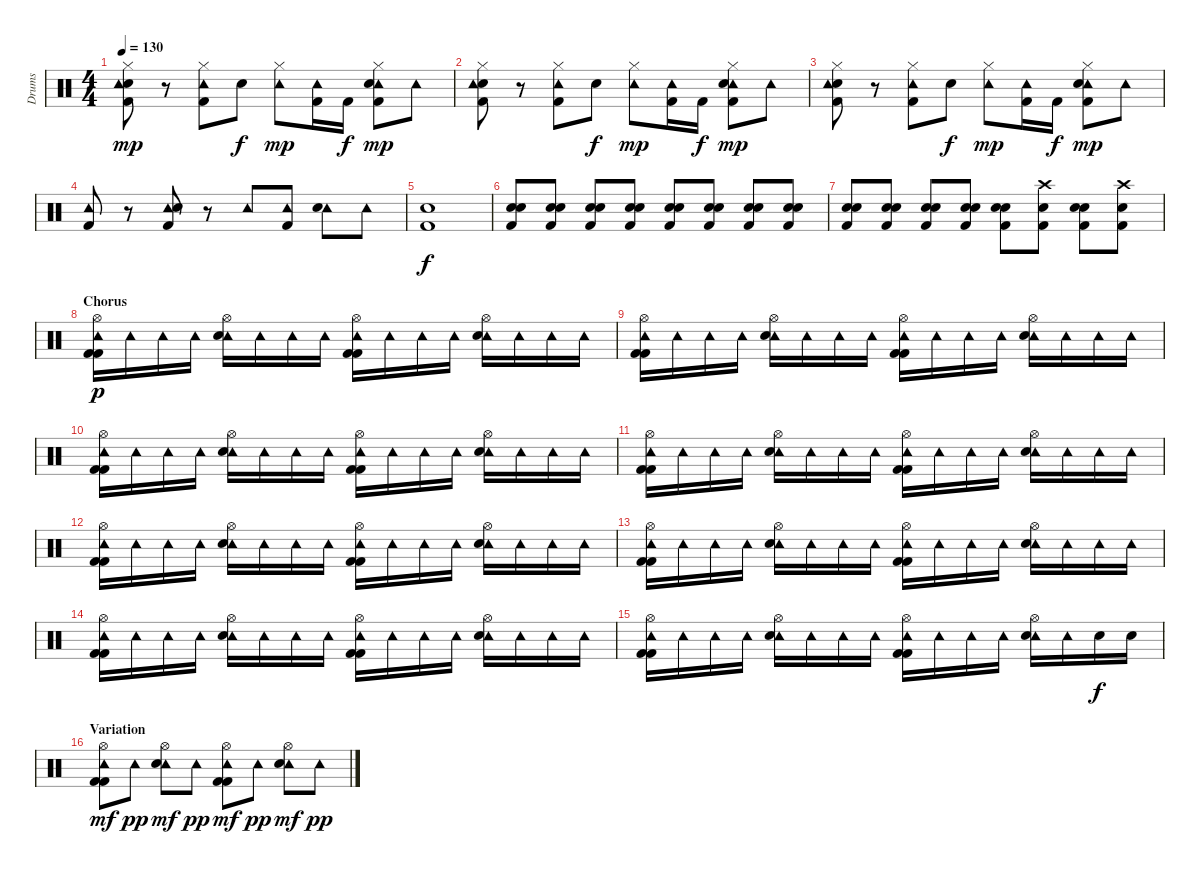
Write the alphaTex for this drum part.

\track ("Drums" "Drums") {instrument percussion}
\staff {score}
\articulation defaults
\ts (4 4)
\tempo 130
\clef neutral
\ks c
("Hi-Hat (closed)" "Snare (hit) 2" "Tambourine (hit)" "Kick (hit) 2").8{dy mp} r.8 ("Hi-Hat (closed)" "Tambourine (hit)" "Kick (hit) 2").8 "Snare (hit) 2".8{dy f} ("Hi-Hat (closed)" "Tambourine (hit)").8{dy mp} ("Tambourine (hit)" "Kick (hit) 2").16 "Kick (hit) 2".16{dy f} ("Hi-Hat (closed)" "Tambourine (hit)" "Snare (hit) 2" "Kick (hit) 2").8{dy mp} "Tambourine (hit)".8 |
("Hi-Hat (closed)" "Snare (hit) 2" "Tambourine (hit)" "Kick (hit) 2").8 r.8 ("Hi-Hat (closed)" "Tambourine (hit)" "Kick (hit) 2").8 "Snare (hit) 2".8{dy f} ("Hi-Hat (closed)" "Tambourine (hit)").8{dy mp} ("Tambourine (hit)" "Kick (hit) 2").16 "Kick (hit) 2".16{dy f} ("Hi-Hat (closed)" "Tambourine (hit)" "Snare (hit) 2" "Kick (hit) 2").8{dy mp} "Tambourine (hit)".8 |
("Hi-Hat (closed)" "Snare (hit) 2" "Tambourine (hit)" "Kick (hit) 2").8 r.8 ("Hi-Hat (closed)" "Tambourine (hit)" "Kick (hit) 2").8 "Snare (hit) 2".8{dy f} ("Hi-Hat (closed)" "Tambourine (hit)").8{dy mp} ("Tambourine (hit)" "Kick (hit) 2").16 "Kick (hit) 2".16{dy f} ("Hi-Hat (closed)" "Tambourine (hit)" "Snare (hit) 2" "Kick (hit) 2").8{dy mp} "Tambourine (hit)".8 |
("Tambourine (hit)" "Kick (hit) 2").8 r.8 ("Tambourine (hit)" "Snare (hit) 2" "Kick (hit) 2").8 r.8 "Tambourine (hit)".8 ("Tambourine (hit)" "Kick (hit) 2").8 ("Tambourine (hit)" "Snare (hit) 2").8 "Tambourine (hit)".8 |
("Snare (hit) 2" "Kick (hit) 2").1{dy f} |
("Snare (hit) 2" "Snare (hit) 2" "Kick (hit) 2").8 ("Snare (hit) 2" "Snare (hit) 2" "Kick (hit) 2").8 ("Snare (hit) 2" "Snare (hit) 2" "Kick (hit) 2").8 ("Snare (hit) 2" "Snare (hit) 2" "Kick (hit) 2").8 ("Snare (hit) 2" "Snare (hit) 2" "Kick (hit) 2").8 ("Snare (hit) 2" "Snare (hit) 2" "Kick (hit) 2").8 ("Snare (hit) 2" "Snare (hit) 2" "Kick (hit) 2").8 ("Snare (hit) 2" "Snare (hit) 2" "Kick (hit) 2").8 |
("Snare (hit) 2" "Snare (hit) 2" "Kick (hit) 2").8 ("Snare (hit) 2" "Snare (hit) 2" "Kick (hit) 2").8 ("Snare (hit) 2" "Snare (hit) 2" "Kick (hit) 2").8 ("Snare (hit) 2" "Snare (hit) 2" "Kick (hit) 2").8 ("Snare (hit) 2" "Snare (hit) 2" "Kick (hit) 2").8 ("Crash high (hit)" "Snare (hit) 2" "Kick (hit) 2").8 ("Snare (hit) 2" "Snare (hit) 2" "Kick (hit) 2").8 ("Crash high (hit)" "Snare (hit) 2" "Kick (hit) 2").8 |
\section ("" "Chorus")
("Hi-Hat (open)" "Tambourine (hit)" "Kick (hit) 2" "Kick (hit) 2").16{dy p} "Tambourine (hit)".16 "Tambourine (hit)".16 "Tambourine (hit)".16 ("Hi-Hat (open)" "Tambourine (hit)" "Snare (hit) 2").16 "Tambourine (hit)".16 "Tambourine (hit)".16 "Tambourine (hit)".16 ("Hi-Hat (open)" "Tambourine (hit)" "Kick (hit) 2" "Kick (hit) 2").16 "Tambourine (hit)".16 "Tambourine (hit)".16 "Tambourine (hit)".16 ("Hi-Hat (open)" "Tambourine (hit)" "Snare (hit) 2").16 "Tambourine (hit)".16 "Tambourine (hit)".16 "Tambourine (hit)".16 |
("Hi-Hat (open)" "Tambourine (hit)" "Kick (hit) 2" "Kick (hit) 2").16 "Tambourine (hit)".16 "Tambourine (hit)".16 "Tambourine (hit)".16 ("Hi-Hat (open)" "Tambourine (hit)" "Snare (hit) 2").16 "Tambourine (hit)".16 "Tambourine (hit)".16 "Tambourine (hit)".16 ("Hi-Hat (open)" "Tambourine (hit)" "Kick (hit) 2" "Kick (hit) 2").16 "Tambourine (hit)".16 "Tambourine (hit)".16 "Tambourine (hit)".16 ("Hi-Hat (open)" "Tambourine (hit)" "Snare (hit) 2").16 "Tambourine (hit)".16 "Tambourine (hit)".16 "Tambourine (hit)".16 |
("Hi-Hat (open)" "Tambourine (hit)" "Kick (hit) 2" "Kick (hit) 2").16 "Tambourine (hit)".16 "Tambourine (hit)".16 "Tambourine (hit)".16 ("Hi-Hat (open)" "Tambourine (hit)" "Snare (hit) 2").16 "Tambourine (hit)".16 "Tambourine (hit)".16 "Tambourine (hit)".16 ("Hi-Hat (open)" "Tambourine (hit)" "Kick (hit) 2" "Kick (hit) 2").16 "Tambourine (hit)".16 "Tambourine (hit)".16 "Tambourine (hit)".16 ("Hi-Hat (open)" "Tambourine (hit)" "Snare (hit) 2").16 "Tambourine (hit)".16 "Tambourine (hit)".16 "Tambourine (hit)".16 |
("Hi-Hat (open)" "Tambourine (hit)" "Kick (hit) 2" "Kick (hit) 2").16 "Tambourine (hit)".16 "Tambourine (hit)".16 "Tambourine (hit)".16 ("Hi-Hat (open)" "Tambourine (hit)" "Snare (hit) 2").16 "Tambourine (hit)".16 "Tambourine (hit)".16 "Tambourine (hit)".16 ("Hi-Hat (open)" "Tambourine (hit)" "Kick (hit) 2" "Kick (hit) 2").16 "Tambourine (hit)".16 "Tambourine (hit)".16 "Tambourine (hit)".16 ("Hi-Hat (open)" "Tambourine (hit)" "Snare (hit) 2").16 "Tambourine (hit)".16 "Tambourine (hit)".16 "Tambourine (hit)".16 |
("Hi-Hat (open)" "Tambourine (hit)" "Kick (hit) 2" "Kick (hit) 2").16 "Tambourine (hit)".16 "Tambourine (hit)".16 "Tambourine (hit)".16 ("Hi-Hat (open)" "Tambourine (hit)" "Snare (hit) 2").16 "Tambourine (hit)".16 "Tambourine (hit)".16 "Tambourine (hit)".16 ("Hi-Hat (open)" "Tambourine (hit)" "Kick (hit) 2" "Kick (hit) 2").16 "Tambourine (hit)".16 "Tambourine (hit)".16 "Tambourine (hit)".16 ("Hi-Hat (open)" "Tambourine (hit)" "Snare (hit) 2").16 "Tambourine (hit)".16 "Tambourine (hit)".16 "Tambourine (hit)".16 |
("Hi-Hat (open)" "Tambourine (hit)" "Kick (hit) 2" "Kick (hit) 2").16 "Tambourine (hit)".16 "Tambourine (hit)".16 "Tambourine (hit)".16 ("Hi-Hat (open)" "Tambourine (hit)" "Snare (hit) 2").16 "Tambourine (hit)".16 "Tambourine (hit)".16 "Tambourine (hit)".16 ("Hi-Hat (open)" "Tambourine (hit)" "Kick (hit) 2" "Kick (hit) 2").16 "Tambourine (hit)".16 "Tambourine (hit)".16 "Tambourine (hit)".16 ("Hi-Hat (open)" "Tambourine (hit)" "Snare (hit) 2").16 "Tambourine (hit)".16 "Tambourine (hit)".16 "Tambourine (hit)".16 |
("Hi-Hat (open)" "Tambourine (hit)" "Kick (hit) 2" "Kick (hit) 2").16 "Tambourine (hit)".16 "Tambourine (hit)".16 "Tambourine (hit)".16 ("Hi-Hat (open)" "Tambourine (hit)" "Snare (hit) 2").16 "Tambourine (hit)".16 "Tambourine (hit)".16 "Tambourine (hit)".16 ("Hi-Hat (open)" "Tambourine (hit)" "Kick (hit) 2" "Kick (hit) 2").16 "Tambourine (hit)".16 "Tambourine (hit)".16 "Tambourine (hit)".16 ("Hi-Hat (open)" "Tambourine (hit)" "Snare (hit) 2").16 "Tambourine (hit)".16 "Tambourine (hit)".16 "Tambourine (hit)".16 |
("Hi-Hat (open)" "Tambourine (hit)" "Kick (hit) 2" "Kick (hit) 2").16 "Tambourine (hit)".16 "Tambourine (hit)".16 "Tambourine (hit)".16 ("Hi-Hat (open)" "Tambourine (hit)" "Snare (hit) 2").16 "Tambourine (hit)".16 "Tambourine (hit)".16 "Tambourine (hit)".16 ("Hi-Hat (open)" "Tambourine (hit)" "Kick (hit) 2" "Kick (hit) 2").16 "Tambourine (hit)".16 "Tambourine (hit)".16 "Tambourine (hit)".16 ("Hi-Hat (open)" "Tambourine (hit)" "Snare (hit) 2").16 "Tambourine (hit)".16 "Snare (hit) 2".16{dy f} "Snare (hit) 2".16 |
\section ("" "Variation")
("Hi-Hat (open)" "Tambourine (hit)" "Kick (hit) 2" "Kick (hit) 2").8{dy mf} "Tambourine (hit)".8{dy pp} ("Hi-Hat (open)" "Tambourine (hit)" "Snare (hit) 2").8{dy mf} "Tambourine (hit)".8{dy pp} ("Hi-Hat (open)" "Tambourine (hit)" "Kick (hit) 2" "Kick (hit) 2").8{dy mf} "Tambourine (hit)".8{dy pp} ("Hi-Hat (open)" "Tambourine (hit)" "Snare (hit) 2").8{dy mf} "Tambourine (hit)".8{dy pp}
